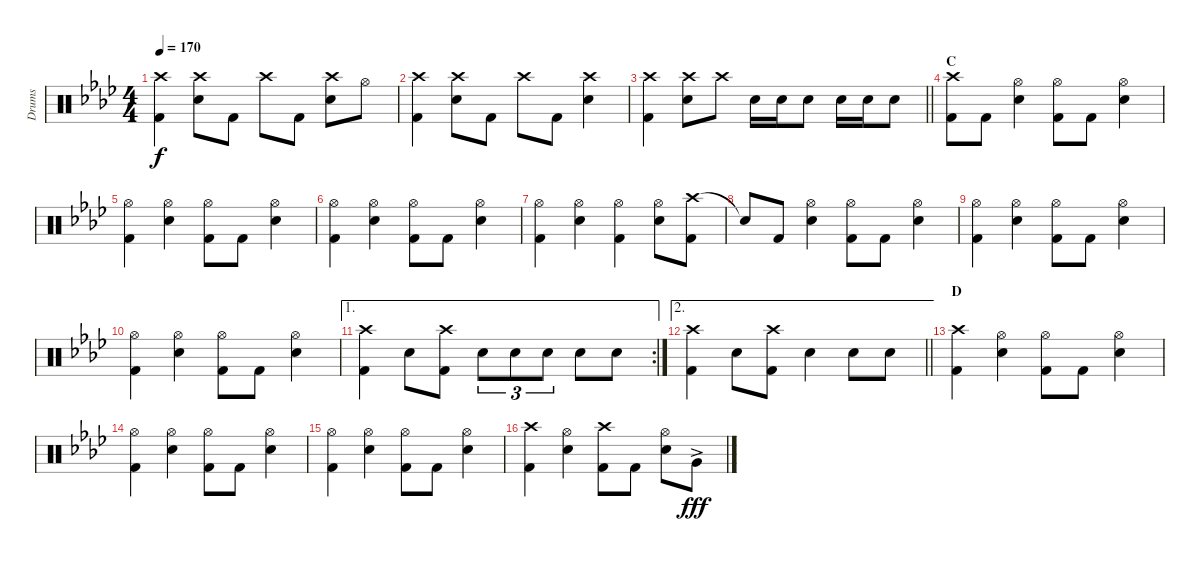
\track ("Drums" "Drums") {instrument percussion}
\staff {score}
\articulation defaults
\ts (4 4)
\tempo 170
\clef neutral
\ks ab
("Crash high (hit)" "Kick (hit) 2").4{dy f} ("Crash high (hit)" "Snare (hit) 2").8 "Kick (hit) 2".8 "Crash high (hit)".8 "Kick (hit) 2".8 ("Crash high (hit)" "Snare (hit) 2").8 "Hi-Hat (open)".8 |
("Crash high (hit)" "Kick (hit) 2").4 ("Crash high (hit)" "Snare (hit) 2").8 "Kick (hit) 2".8 "Crash high (hit)".8 "Kick (hit) 2".8 ("Crash high (hit)" "Snare (hit) 2").4 |
\barLineRight lightlight
("Crash high (hit)" "Kick (hit) 2").4 ("Crash high (hit)" "Snare (hit) 2").8 "Crash high (hit)".8 "Snare (hit) 2".16 "Snare (hit) 2".16 "Snare (hit) 2".8 "Snare (hit) 2".16 "Snare (hit) 2".16 "Snare (hit) 2".8 |
\section ("" "C")
("Crash high (hit)" "Kick (hit) 2").8 "Kick (hit) 2".8 ("Hi-Hat (open)" "Snare (hit) 2").4 ("Hi-Hat (open)" "Kick (hit) 2").8 "Kick (hit) 2".8 ("Hi-Hat (open)" "Snare (hit) 2").4 |
("Hi-Hat (open)" "Kick (hit) 2").4 ("Hi-Hat (open)" "Snare (hit) 2").4 ("Hi-Hat (open)" "Kick (hit) 2").8 "Kick (hit) 2".8 ("Hi-Hat (open)" "Snare (hit) 2").4 |
("Hi-Hat (open)" "Kick (hit) 2").4 ("Hi-Hat (open)" "Snare (hit) 2").4 ("Hi-Hat (open)" "Kick (hit) 2").8 "Kick (hit) 2".8 ("Hi-Hat (open)" "Snare (hit) 2").4 |
("Hi-Hat (open)" "Kick (hit) 2").4 ("Hi-Hat (open)" "Snare (hit) 2").4 ("Hi-Hat (open)" "Kick (hit) 2").4 ("Hi-Hat (open)" "Snare (hit) 2").8 ("Crash high (hit)" "Kick (hit) 2").8 |
"Snare (hit)"{t}.8 "Kick (hit) 2".8 ("Hi-Hat (open)" "Snare (hit) 2").4 ("Hi-Hat (open)" "Kick (hit) 2").8 "Kick (hit) 2".8 ("Hi-Hat (open)" "Snare (hit) 2").4 |
("Hi-Hat (open)" "Kick (hit) 2").4 ("Hi-Hat (open)" "Snare (hit) 2").4 ("Hi-Hat (open)" "Kick (hit) 2").8 "Kick (hit) 2".8 ("Hi-Hat (open)" "Snare (hit) 2").4 |
("Hi-Hat (open)" "Kick (hit) 2").4 ("Hi-Hat (open)" "Snare (hit) 2").4 ("Hi-Hat (open)" "Kick (hit) 2").8 "Kick (hit) 2".8 ("Hi-Hat (open)" "Snare (hit) 2").4 |
\ae 1
\rc 2
("Crash high (hit)" "Kick (hit) 2").4 "Snare (hit) 2".8 ("Crash high (hit)" "Kick (hit) 2").8 "Snare (hit) 2".8{tu (3 2)} "Snare (hit) 2".8{tu (3 2)} "Snare (hit) 2".8{tu (3 2)} "Snare (hit) 2".8 "Snare (hit) 2".8 |
\ae 2
\barLineRight lightlight
("Crash high (hit)" "Kick (hit) 2").4 "Snare (hit) 2".8 ("Crash high (hit)" "Kick (hit) 2").8 "Snare (hit) 2".4 "Snare (hit) 2".8 "Snare (hit) 2".8 |
\section ("" "D")
("Crash high (hit)" "Kick (hit) 2").4 ("Hi-Hat (open)" "Snare (hit) 2").4 ("Hi-Hat (open)" "Kick (hit) 2").8 "Kick (hit) 2".8 ("Hi-Hat (open)" "Snare (hit) 2").4 |
("Hi-Hat (open)" "Kick (hit) 2").4 ("Hi-Hat (open)" "Snare (hit) 2").4 ("Hi-Hat (open)" "Kick (hit) 2").8 "Kick (hit) 2".8 ("Hi-Hat (open)" "Snare (hit) 2").4 |
("Hi-Hat (open)" "Kick (hit) 2").4 ("Hi-Hat (open)" "Snare (hit) 2").4 ("Hi-Hat (open)" "Kick (hit) 2").8 "Kick (hit) 2".8 ("Hi-Hat (open)" "Snare (hit) 2").4 |
("Crash high (hit)" "Kick (hit) 2").4 ("Hi-Hat (open)" "Snare (hit) 2").4 ("Crash high (hit)" "Kick (hit) 2").8 "Kick (hit) 2".8 ("Hi-Hat (open)" "Snare (hit) 2").8 "Very Low Tom (hit)"{ac}.8{dy fff}
